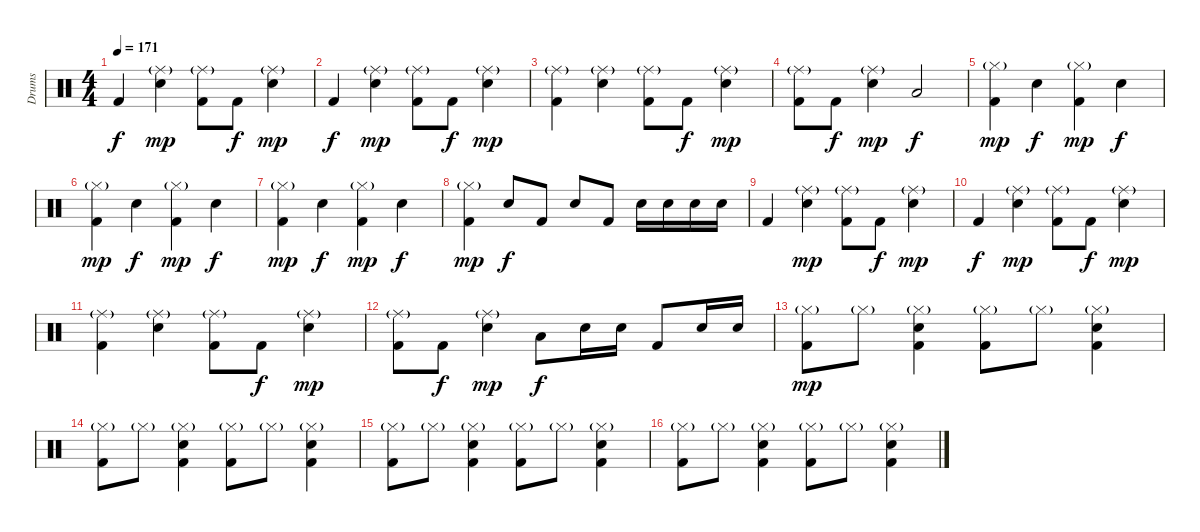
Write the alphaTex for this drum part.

\track ("Drums" "Drums") {instrument percussion}
\staff {score}
\articulation defaults
\ts (4 4)
\tempo 171
\clef neutral
\ks c "Kick (hit) 2".4{dy f}
("Ride (middle)"{g} "Electric Snare (hit)").4{dy mp} ("Ride (middle)"{g} "Kick (hit) 2").8 "Kick (hit) 2".8{dy f} ("Ride (middle)"{g} "Electric Snare (hit)").4{dy mp} |
"Kick (hit) 2".4{dy f} ("Ride (middle)"{g} "Electric Snare (hit)").4{dy mp} ("Ride (middle)"{g} "Kick (hit) 2").8 "Kick (hit) 2".8{dy f} ("Ride (middle)"{g} "Electric Snare (hit)").4{dy mp} |
("Ride (middle)"{g} "Kick (hit) 2").4 ("Ride (middle)"{g} "Electric Snare (hit)").4 ("Ride (middle)"{g} "Kick (hit) 2").8 "Kick (hit) 2".8{dy f} ("Ride (middle)"{g} "Electric Snare (hit)").4{dy mp} |
("Ride (middle)"{g} "Kick (hit) 2").8 "Kick (hit) 2".8{dy f} ("Ride (middle)"{g} "Electric Snare (hit)").4{dy mp} "Low Floor Tom (hit)".2{dy f} |
("Hi-Hat (closed)"{g} "Kick (hit) 2").4{dy mp} "Electric Snare (hit)".4{dy f} ("Hi-Hat (closed)"{g} "Kick (hit) 2").4{dy mp} "Electric Snare (hit)".4{dy f} |
("Hi-Hat (closed)"{g} "Kick (hit) 2").4{dy mp} "Electric Snare (hit)".4{dy f} ("Hi-Hat (closed)"{g} "Kick (hit) 2").4{dy mp} "Electric Snare (hit)".4{dy f} |
("Hi-Hat (closed)"{g} "Kick (hit) 2").4{dy mp} "Electric Snare (hit)".4{dy f} ("Hi-Hat (closed)"{g} "Kick (hit) 2").4{dy mp} "Electric Snare (hit)".4{dy f} |
("Hi-Hat (closed)"{g} "Kick (hit) 2").4{dy mp} "Electric Snare (hit)".8{dy f} "Kick (hit) 2".8 "Electric Snare (hit)".8 "Kick (hit) 2".8 "Electric Snare (hit)".16 "Electric Snare (hit)".16 "Electric Snare (hit)".16 "Electric Snare (hit)".16 |
"Kick (hit) 2".4 ("Ride (middle)"{g} "Electric Snare (hit)").4{dy mp} ("Ride (middle)"{g} "Kick (hit) 2").8 "Kick (hit) 2".8{dy f} ("Ride (middle)"{g} "Electric Snare (hit)").4{dy mp} |
"Kick (hit) 2".4{dy f} ("Ride (middle)"{g} "Electric Snare (hit)").4{dy mp} ("Ride (middle)"{g} "Kick (hit) 2").8 "Kick (hit) 2".8{dy f} ("Ride (middle)"{g} "Electric Snare (hit)").4{dy mp} |
("Ride (middle)"{g} "Kick (hit) 2").4 ("Ride (middle)"{g} "Electric Snare (hit)").4 ("Ride (middle)"{g} "Kick (hit) 2").8 "Kick (hit) 2".8{dy f} ("Ride (middle)"{g} "Electric Snare (hit)").4{dy mp} |
("Ride (middle)"{g} "Kick (hit) 2").8 "Kick (hit) 2".8{dy f} ("Ride (middle)"{g} "Electric Snare (hit)").4{dy mp} "Low Floor Tom (hit)".8{dy f} "Electric Snare (hit)".16 "Electric Snare (hit)".16 "Kick (hit) 2".8 "Electric Snare (hit)".16 "Electric Snare (hit)".16 |
("Hi-Hat (closed)"{g} "Kick (hit) 2").8{dy mp} "Hi-Hat (closed)"{g}.8 ("Hi-Hat (closed)"{g} "Electric Snare (hit)" "Kick (hit) 2").4 ("Hi-Hat (closed)"{g} "Kick (hit) 2").8 "Hi-Hat (closed)"{g}.8 ("Hi-Hat (closed)"{g} "Electric Snare (hit)" "Kick (hit) 2").4 |
("Hi-Hat (closed)"{g} "Kick (hit) 2").8 "Hi-Hat (closed)"{g}.8 ("Hi-Hat (closed)"{g} "Electric Snare (hit)" "Kick (hit) 2").4 ("Hi-Hat (closed)"{g} "Kick (hit) 2").8 "Hi-Hat (closed)"{g}.8 ("Hi-Hat (closed)"{g} "Electric Snare (hit)" "Kick (hit) 2").4 |
("Hi-Hat (closed)"{g} "Kick (hit) 2").8 "Hi-Hat (closed)"{g}.8 ("Hi-Hat (closed)"{g} "Electric Snare (hit)" "Kick (hit) 2").4 ("Hi-Hat (closed)"{g} "Kick (hit) 2").8 "Hi-Hat (closed)"{g}.8 ("Hi-Hat (closed)"{g} "Electric Snare (hit)" "Kick (hit) 2").4 |
("Hi-Hat (closed)"{g} "Kick (hit) 2").8 "Hi-Hat (closed)"{g}.8 ("Hi-Hat (closed)"{g} "Electric Snare (hit)" "Kick (hit) 2").4 ("Hi-Hat (closed)"{g} "Kick (hit) 2").8 "Hi-Hat (closed)"{g}.8 ("Hi-Hat (closed)"{g} "Electric Snare (hit)" "Kick (hit) 2").4
